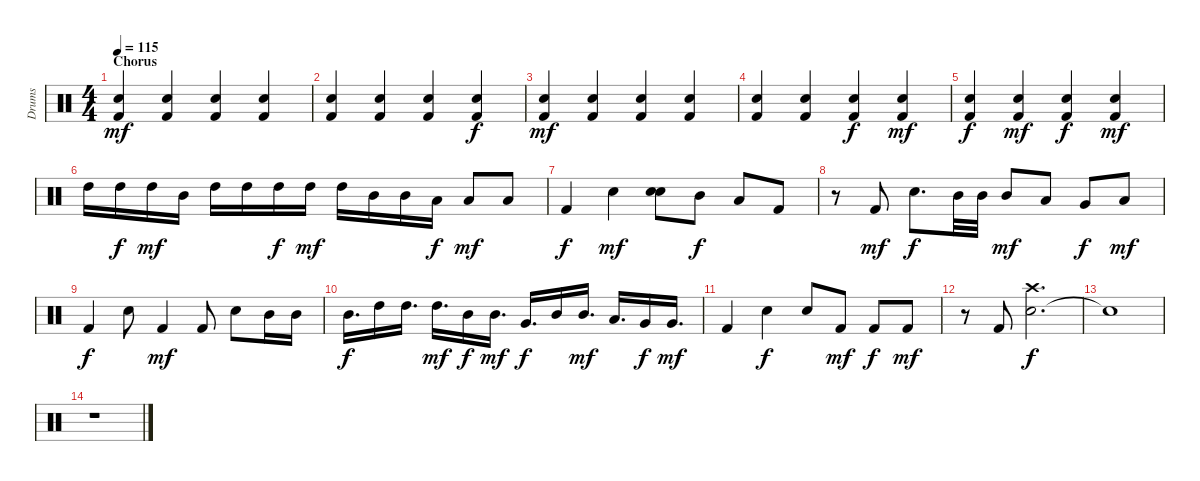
\track ("Drums" "Drums") {instrument percussion}
\staff {score}
\articulation defaults
\ts (4 4)
\section ("" "Chorus")
\tempo 115
\clef neutral
\ks c
("Kick (hit) 2" "Electric Snare (hit)").4{dy mf} ("Kick (hit) 2" "Electric Snare (hit)").4 ("Kick (hit) 2" "Electric Snare (hit)").4 ("Kick (hit) 2" "Electric Snare (hit)").4 |
("Kick (hit) 2" "Electric Snare (hit)").4 ("Kick (hit) 2" "Electric Snare (hit)").4 ("Kick (hit) 2" "Electric Snare (hit)").4 ("Kick (hit) 2" "Electric Snare (hit)").4{dy f} |
("Kick (hit) 2" "Electric Snare (hit)").4{dy mf} ("Kick (hit) 2" "Electric Snare (hit)").4 ("Kick (hit) 2" "Electric Snare (hit)").4 ("Kick (hit) 2" "Electric Snare (hit)").4 |
("Kick (hit) 2" "Electric Snare (hit)").4 ("Kick (hit) 2" "Electric Snare (hit)").4 ("Kick (hit) 2" "Electric Snare (hit)").4{dy f} ("Kick (hit) 2" "Electric Snare (hit)").4{dy mf} |
("Kick (hit) 2" "Electric Snare (hit)").4{dy f} ("Kick (hit) 2" "Electric Snare (hit)").4{dy mf} ("Kick (hit) 2" "Electric Snare (hit)").4{dy f} ("Kick (hit) 2" "Electric Snare (hit)").4{dy mf} |
"High Tom (hit)".16 "High Tom (hit)".16{dy f} "High Tom (hit)".16{dy mf} "Mid Tom (hit)".16 "High Tom (hit)".16 "High Tom (hit)".16 "High Tom (hit)".16{dy f} "High Tom (hit)".16{dy mf} "High Tom (hit)".16 "Mid Tom (hit)".16 "Mid Tom (hit)".16 "Low Tom (hit)".16{dy f} "Low Tom (hit)".8{dy mf} "Low Tom (hit)".8 |
"Kick (hit) 2".4{dy f} "Electric Snare (hit)".4{dy mf} ("Electric Snare (hit)" "Electric Snare (hit)").8 "Mid Tom (hit)".8{dy f} "Low Tom (hit)".8 "Kick (hit) 2".8 |
r.8 "Kick (hit) 2".8{dy mf} "Electric Snare (hit)".8{d dy f} "Mid Tom (hit)".32 "Mid Tom (hit)".32 "Mid Tom (hit)".8{dy mf} "Low Tom (hit)".8 "Very Low Tom (hit)".8{dy f} "Low Floor Tom (hit)".8{dy mf} |
"Kick (hit) 2".4{dy f} "Electric Snare (hit)".8 "Kick (hit) 2".4{dy mf} "Kick (hit) 2".8 "Electric Snare (hit)".8 "Mid Tom (hit)".16 "Mid Tom (hit)".16 |
"Mid Tom (hit)".16{d dy f} "High Tom (hit)".16 "High Tom (hit)".16{d} "High Tom (hit)".16{d dy mf} "Mid Tom (hit)".16{dy f} "Mid Tom (hit)".16{d dy mf} "Very Low Tom (hit)".16{d dy f} "Mid Tom (hit)".16 "Mid Tom (hit)".16{d dy mf} "Low Tom (hit)".16{d} "Very Low Tom (hit)".16{dy f} "Very Low Tom (hit)".16{d dy mf} |
"Kick (hit) 2".4 "Electric Snare (hit)".4{dy f} "Electric Snare (hit)".8 "Kick (hit) 2".8{dy mf} "Kick (hit) 2".8{dy f} "Kick (hit) 2".8{dy mf} |
r.8 "Kick (hit) 2".8 ("Electric Snare (hit)" "Crash high (hit)").2{d dy f} |
"Snare (hit)"{t}.1 |
r.1
